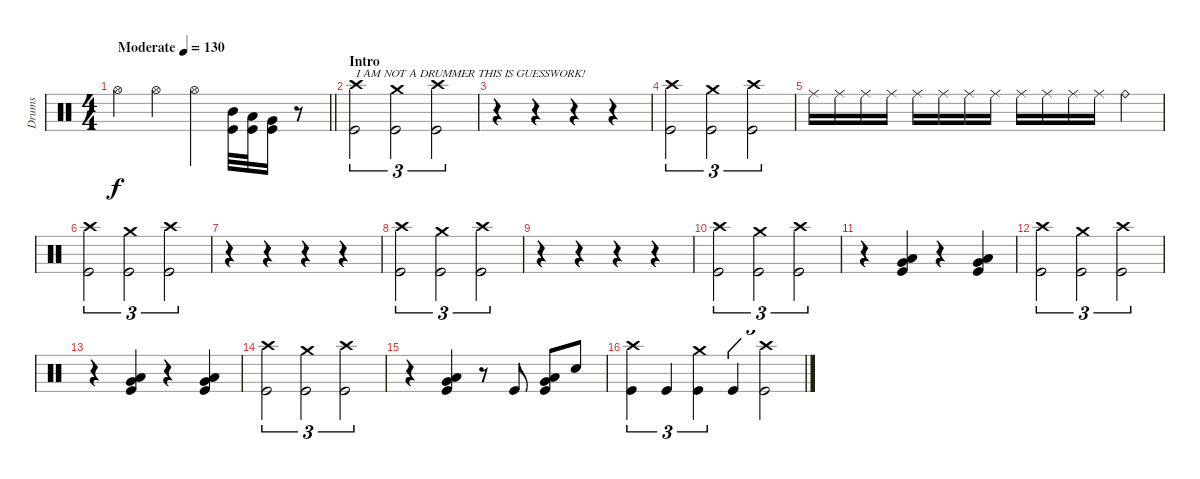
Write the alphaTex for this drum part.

\track ("Drums" "Drums") {instrument percussion}
\staff {score}
\articulation defaults
\ts (4 4)
\tempo (130 "Moderate")
\clef neutral
\barLineRight lightlight
\ks c "Hi-Hat (open)".4{dy f} "Hi-Hat (open)".4 "Hi-Hat (open)".4{beam merge}
("Mid Tom (hit)" "Kick (hit)").32{beam merge} ("Low Tom (hit)" "Kick (hit)").32{beam merge} ("Very Low Tom (hit)" "Kick (hit)").16{beam merge} r.8 |
\section ("" "Intro")
("Crash high (hit)" "Kick (hit)").2{tu (3 2) txt "I AM NOT A DRUMMER THIS IS GUESSWORK!"} ("Crash medium (hit)" "Kick (hit)").2{tu (3 2)} ("Crash high (hit)" "Kick (hit)").2{tu (3 2)} |
r.4 r.4 r.4 r.4 |
("Crash high (hit)" "Kick (hit)").2{tu (3 2)} ("Crash medium (hit)" "Kick (hit)").2{tu (3 2)} ("Crash high (hit)" "Kick (hit)").2{tu (3 2)} |
"Ride (middle)".16 "Ride (middle)".16 "Ride (middle)".16 "Ride (middle)".16 "Ride (middle)".16 "Ride (middle)".16 "Ride (middle)".16 "Ride (middle)".16 "Ride (middle)".16 "Ride (middle)".16 "Ride (middle)".16 "Ride (middle)".16 "Ride (bell)".4 |
("Crash high (hit)" "Kick (hit)").2{tu (3 2)} ("Crash medium (hit)" "Kick (hit)").2{tu (3 2)} ("Crash high (hit)" "Kick (hit)").2{tu (3 2)} |
r.4 r.4 r.4 r.4 |
("Crash high (hit)" "Kick (hit)").2{tu (3 2)} ("Crash medium (hit)" "Kick (hit)").2{tu (3 2)} ("Crash high (hit)" "Kick (hit)").2{tu (3 2)} |
r.4 r.4 r.4 r.4 |
("Crash high (hit)" "Kick (hit)").2{tu (3 2)} ("Crash medium (hit)" "Kick (hit)").2{tu (3 2)} ("Crash high (hit)" "Kick (hit)").2{tu (3 2)} |
r.4 ("Low Tom (hit)" "Very Low Tom (hit)" "Kick (hit)").4 r.4 ("Low Tom (hit)" "Very Low Tom (hit)" "Kick (hit)").4 |
("Crash high (hit)" "Kick (hit)").2{tu (3 2)} ("Crash medium (hit)" "Kick (hit)").2{tu (3 2)} ("Crash high (hit)" "Kick (hit)").2{tu (3 2)} |
r.4 ("Low Tom (hit)" "Very Low Tom (hit)" "Kick (hit)").4 r.4 ("Low Tom (hit)" "Very Low Tom (hit)" "Kick (hit)").4 |
("Crash high (hit)" "Kick (hit)").2{tu (3 2)} ("Crash medium (hit)" "Kick (hit)").2{tu (3 2)} ("Crash high (hit)" "Kick (hit)").2{tu (3 2)} |
r.4 ("Low Tom (hit)" "Very Low Tom (hit)" "Kick (hit)").4 r.8 "Kick (hit)".8 ("Low Tom (hit)" "Very Low Tom (hit)" "Kick (hit)").8{beam merge} "Snare (hit) 2".8 |
("Crash high (hit)" "Kick (hit)").4{tu (3 2)} "Kick (hit)".4{tu (3 2)} ("Crash medium (hit)" "Kick (hit)").4{tu (3 2)} "Kick (hit)".4{tu (3 2)} ("Crash high (hit)" "Kick (hit)").2{tu (3 2)}
